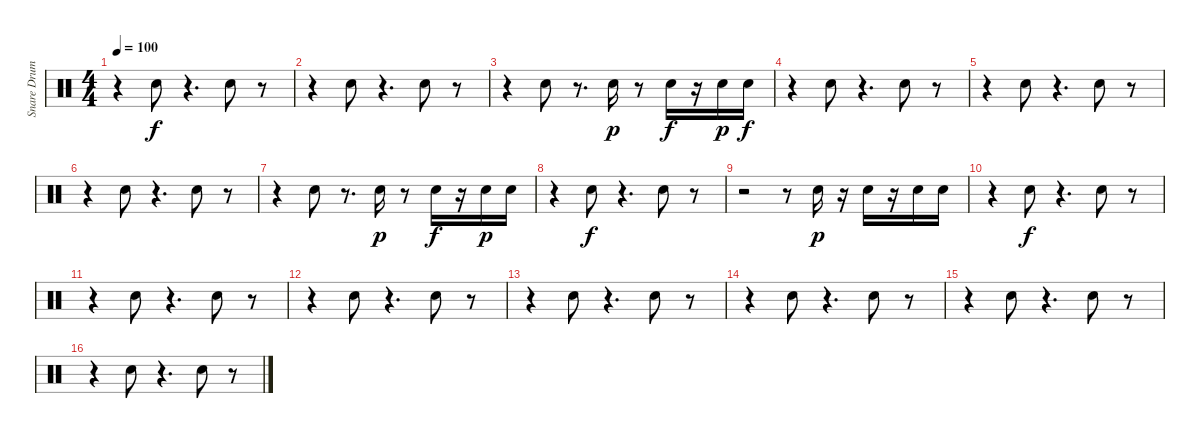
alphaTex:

\track ("Snare Drum" "Snare Drum") {instrument percussion}
\staff {score}
\articulation defaults
\ts (4 4)
\tempo 100
\clef neutral
\ks c
r.4{dy f} "Snare (hit) 2".8 r.4{d} "Snare (hit) 2".8 r.8 |
r.4 "Snare (hit) 2".8 r.4{d} "Snare (hit) 2".8 r.8 |
r.4 "Snare (hit) 2".8 r.8{d} "Snare (hit) 2".16{dy p} r.8 "Snare (hit) 2".16{dy f} r.16 "Snare (hit) 2".16{dy p} "Snare (hit) 2".16{dy f} |
r.4 "Snare (hit) 2".8 r.4{d} "Snare (hit) 2".8 r.8 |
r.4 "Snare (hit) 2".8 r.4{d} "Snare (hit) 2".8 r.8 |
r.4 "Snare (hit) 2".8 r.4{d} "Snare (hit) 2".8 r.8 |
r.4 "Snare (hit) 2".8 r.8{d} "Snare (hit) 2".16{dy p} r.8 "Snare (hit) 2".16{dy f} r.16 "Snare (hit) 2".16{dy p} "Snare (hit) 2".16 |
r.4 "Snare (hit) 2".8{dy f} r.4{d} "Snare (hit) 2".8 r.8 |
r.2 r.8 "Snare (hit) 2".16{dy p} r.16 "Snare (hit) 2".16 r.16 "Snare (hit) 2".16 "Snare (hit) 2".16 |
r.4 "Snare (hit) 2".8{dy f} r.4{d} "Snare (hit) 2".8 r.8 |
r.4 "Snare (hit) 2".8 r.4{d} "Snare (hit) 2".8 r.8 |
r.4 "Snare (hit) 2".8 r.4{d} "Snare (hit) 2".8 r.8 |
r.4 "Snare (hit) 2".8 r.4{d} "Snare (hit) 2".8 r.8 |
r.4 "Snare (hit) 2".8 r.4{d} "Snare (hit) 2".8 r.8 |
r.4 "Snare (hit) 2".8 r.4{d} "Snare (hit) 2".8 r.8 |
r.4 "Snare (hit) 2".8 r.4{d} "Snare (hit) 2".8 r.8
